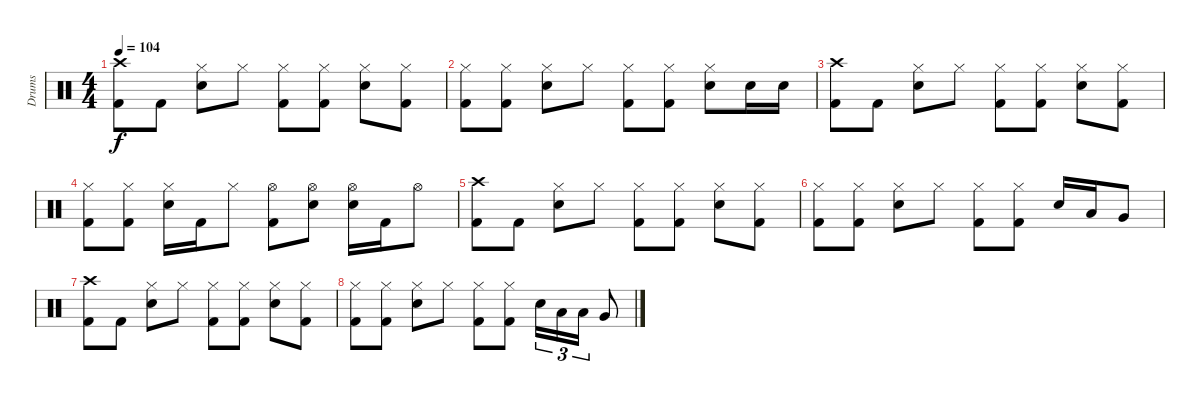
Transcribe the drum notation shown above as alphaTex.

\track ("Drums" "Drums") {instrument percussion}
\staff {score}
\articulation defaults
\ts (4 4)
\tempo 104
\clef neutral
\ks c
("Crash high (hit)" "Kick (hit) 2").8{dy f} "Kick (hit) 2".8 ("Hi-Hat (closed)" "Electric Snare (hit)").8 "Hi-Hat (closed)".8 ("Hi-Hat (closed)" "Kick (hit) 2").8 ("Hi-Hat (closed)" "Kick (hit) 2").8 ("Hi-Hat (closed)" "Electric Snare (hit)").8 ("Hi-Hat (closed)" "Kick (hit) 2").8 |
("Hi-Hat (closed)" "Kick (hit) 2").8 ("Hi-Hat (closed)" "Kick (hit) 2").8 ("Hi-Hat (closed)" "Electric Snare (hit)").8 "Hi-Hat (closed)".8 ("Hi-Hat (closed)" "Kick (hit) 2").8 ("Hi-Hat (closed)" "Kick (hit) 2").8 ("Hi-Hat (closed)" "Electric Snare (hit)").8 "Electric Snare (hit)".16 "Electric Snare (hit)".16 |
("Crash high (hit)" "Kick (hit) 2").8{volume 9} "Kick (hit) 2".8 ("Hi-Hat (closed)" "Electric Snare (hit)").8 "Hi-Hat (closed)".8 ("Hi-Hat (closed)" "Kick (hit) 2").8 ("Hi-Hat (closed)" "Kick (hit) 2").8 ("Hi-Hat (closed)" "Electric Snare (hit)").8 ("Hi-Hat (closed)" "Kick (hit) 2").8 |
("Hi-Hat (closed)" "Kick (hit) 2").8 ("Hi-Hat (closed)" "Kick (hit) 2").8 ("Hi-Hat (closed)" "Electric Snare (hit)").16 "Kick (hit) 2".16 "Hi-Hat (closed)".8 ("Hi-Hat (open)" "Kick (hit) 2").8 ("Hi-Hat (open)" "Electric Snare (hit)").8 ("Hi-Hat (open)" "Electric Snare (hit)").16 "Kick (hit) 2".16 "Hi-Hat (open)".8 |
("Crash high (hit)" "Kick (hit) 2").8{volume 5} "Kick (hit) 2".8 ("Hi-Hat (closed)" "Electric Snare (hit)").8 "Hi-Hat (closed)".8 ("Hi-Hat (closed)" "Kick (hit) 2").8 ("Hi-Hat (closed)" "Kick (hit) 2").8 ("Hi-Hat (closed)" "Electric Snare (hit)").8 ("Hi-Hat (closed)" "Kick (hit) 2").8 |
("Hi-Hat (closed)" "Kick (hit) 2").8 ("Hi-Hat (closed)" "Kick (hit) 2").8 ("Hi-Hat (closed)" "Electric Snare (hit)").8 "Hi-Hat (closed)".8 ("Hi-Hat (closed)" "Kick (hit) 2").8 ("Hi-Hat (closed)" "Kick (hit) 2").8 "Electric Snare (hit)".16 "Low Tom (hit)".16 "Very Low Tom (hit)".8 |
("Crash high (hit)" "Kick (hit) 2").8{volume 0} "Kick (hit) 2".8 ("Hi-Hat (closed)" "Electric Snare (hit)").8 "Hi-Hat (closed)".8 ("Hi-Hat (closed)" "Kick (hit) 2").8 ("Hi-Hat (closed)" "Kick (hit) 2").8 ("Hi-Hat (closed)" "Electric Snare (hit)").8 ("Hi-Hat (closed)" "Kick (hit) 2").8 |
("Hi-Hat (closed)" "Kick (hit) 2").8 ("Hi-Hat (closed)" "Kick (hit) 2").8 ("Hi-Hat (closed)" "Electric Snare (hit)").8 "Hi-Hat (closed)".8 ("Hi-Hat (closed)" "Kick (hit) 2").8 ("Hi-Hat (closed)" "Kick (hit) 2").8 "Electric Snare (hit)".16{tu (3 2)} "Low Tom (hit)".16{tu (3 2)} "Low Tom (hit)".16{tu (3 2)} "Very Low Tom (hit)".8
